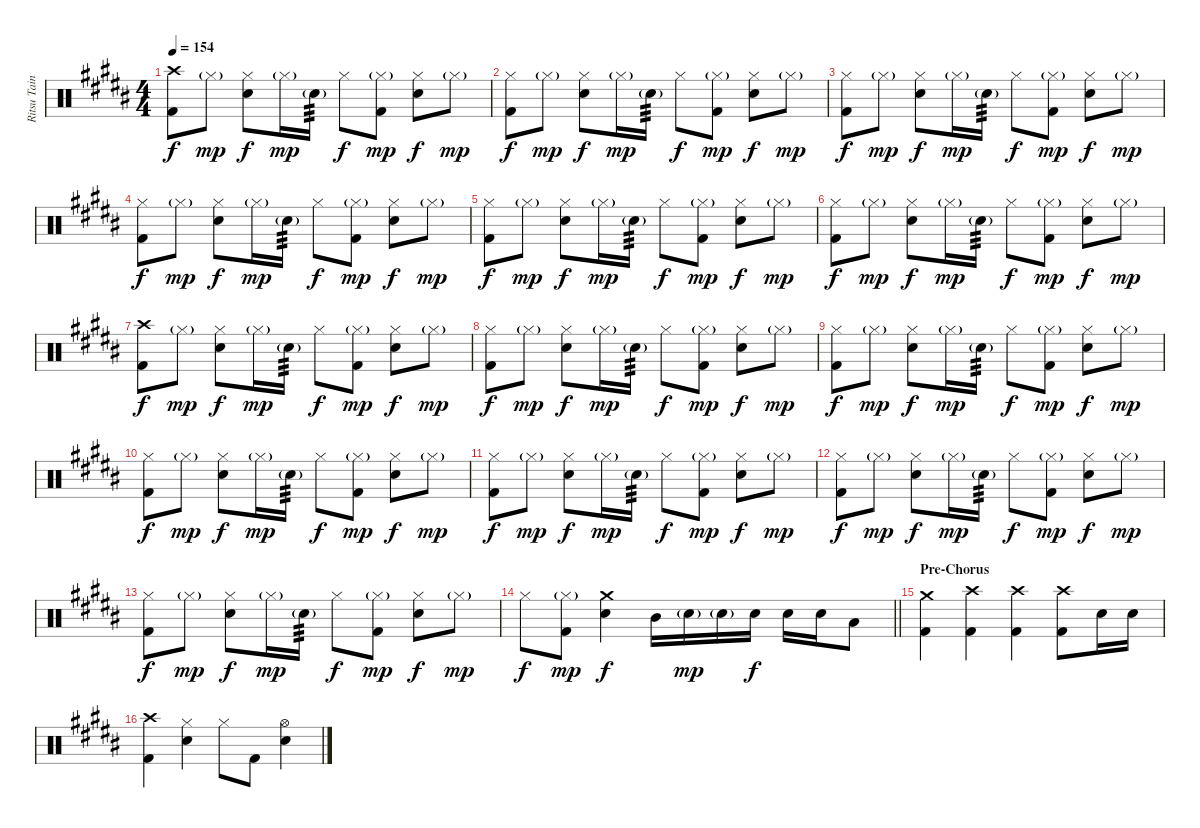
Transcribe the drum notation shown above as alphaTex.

\track ("Ritsu Tainaka" "Ritsu Tain") {instrument percussion}
\staff {score}
\articulation defaults
\ts (4 4)
\tempo 154
\clef neutral
\ks b
("Crash high (hit)" "Kick (hit) 2").8{dy f} "Hi-Hat (closed)"{g}.8{dy mp} ("Hi-Hat (closed)" "Snare (hit) 2").8{dy f} "Hi-Hat (closed)"{g}.16{dy mp} "Snare (hit) 2"{g}.16{tp 3} "Hi-Hat (closed)".8{dy f} ("Hi-Hat (closed)"{g} "Kick (hit) 2").8{dy mp} ("Hi-Hat (closed)" "Snare (hit) 2").8{dy f} "Hi-Hat (closed)"{g}.8{dy mp} |
("Hi-Hat (closed)" "Kick (hit) 2").8{dy f} "Hi-Hat (closed)"{g}.8{dy mp} ("Hi-Hat (closed)" "Snare (hit) 2").8{dy f} "Hi-Hat (closed)"{g}.16{dy mp} "Snare (hit) 2"{g}.16{tp 3} "Hi-Hat (closed)".8{dy f} ("Hi-Hat (closed)"{g} "Kick (hit) 2").8{dy mp} ("Hi-Hat (closed)" "Snare (hit) 2").8{dy f} "Hi-Hat (closed)"{g}.8{dy mp} |
("Hi-Hat (closed)" "Kick (hit) 2").8{dy f} "Hi-Hat (closed)"{g}.8{dy mp} ("Hi-Hat (closed)" "Snare (hit) 2").8{dy f} "Hi-Hat (closed)"{g}.16{dy mp} "Snare (hit) 2"{g}.16{tp 3} "Hi-Hat (closed)".8{dy f} ("Hi-Hat (closed)"{g} "Kick (hit) 2").8{dy mp} ("Hi-Hat (closed)" "Snare (hit) 2").8{dy f} "Hi-Hat (closed)"{g}.8{dy mp} |
("Hi-Hat (closed)" "Kick (hit) 2").8{dy f} "Hi-Hat (closed)"{g}.8{dy mp} ("Hi-Hat (closed)" "Snare (hit) 2").8{dy f} "Hi-Hat (closed)"{g}.16{dy mp} "Snare (hit) 2"{g}.16{tp 3} "Hi-Hat (closed)".8{dy f} ("Hi-Hat (closed)"{g} "Kick (hit) 2").8{dy mp} ("Hi-Hat (closed)" "Snare (hit) 2").8{dy f} "Hi-Hat (closed)"{g}.8{dy mp} |
("Hi-Hat (closed)" "Kick (hit) 2").8{dy f} "Hi-Hat (closed)"{g}.8{dy mp} ("Hi-Hat (closed)" "Snare (hit) 2").8{dy f} "Hi-Hat (closed)"{g}.16{dy mp} "Snare (hit) 2"{g}.16{tp 3} "Hi-Hat (closed)".8{dy f} ("Hi-Hat (closed)"{g} "Kick (hit) 2").8{dy mp} ("Hi-Hat (closed)" "Snare (hit) 2").8{dy f} "Hi-Hat (closed)"{g}.8{dy mp} |
("Hi-Hat (closed)" "Kick (hit) 2").8{dy f} "Hi-Hat (closed)"{g}.8{dy mp} ("Hi-Hat (closed)" "Snare (hit) 2").8{dy f} "Hi-Hat (closed)"{g}.16{dy mp} "Snare (hit) 2"{g}.16{tp 3} "Hi-Hat (closed)".8{dy f} ("Hi-Hat (closed)"{g} "Kick (hit) 2").8{dy mp} ("Hi-Hat (closed)" "Snare (hit) 2").8{dy f} "Hi-Hat (closed)"{g}.8{dy mp} |
("Crash high (hit)" "Kick (hit) 2").8{dy f} "Hi-Hat (closed)"{g}.8{dy mp} ("Hi-Hat (closed)" "Snare (hit) 2").8{dy f} "Hi-Hat (closed)"{g}.16{dy mp} "Snare (hit) 2"{g}.16{tp 3} "Hi-Hat (closed)".8{dy f} ("Hi-Hat (closed)"{g} "Kick (hit) 2").8{dy mp} ("Hi-Hat (closed)" "Snare (hit) 2").8{dy f} "Hi-Hat (closed)"{g}.8{dy mp} |
("Hi-Hat (closed)" "Kick (hit) 2").8{dy f} "Hi-Hat (closed)"{g}.8{dy mp} ("Hi-Hat (closed)" "Snare (hit) 2").8{dy f} "Hi-Hat (closed)"{g}.16{dy mp} "Snare (hit) 2"{g}.16{tp 3} "Hi-Hat (closed)".8{dy f} ("Hi-Hat (closed)"{g} "Kick (hit) 2").8{dy mp} ("Hi-Hat (closed)" "Snare (hit) 2").8{dy f} "Hi-Hat (closed)"{g}.8{dy mp} |
("Hi-Hat (closed)" "Kick (hit) 2").8{dy f} "Hi-Hat (closed)"{g}.8{dy mp} ("Hi-Hat (closed)" "Snare (hit) 2").8{dy f} "Hi-Hat (closed)"{g}.16{dy mp} "Snare (hit) 2"{g}.16{tp 3} "Hi-Hat (closed)".8{dy f} ("Hi-Hat (closed)"{g} "Kick (hit) 2").8{dy mp} ("Hi-Hat (closed)" "Snare (hit) 2").8{dy f} "Hi-Hat (closed)"{g}.8{dy mp} |
("Hi-Hat (closed)" "Kick (hit) 2").8{dy f} "Hi-Hat (closed)"{g}.8{dy mp} ("Hi-Hat (closed)" "Snare (hit) 2").8{dy f} "Hi-Hat (closed)"{g}.16{dy mp} "Snare (hit) 2"{g}.16{tp 3} "Hi-Hat (closed)".8{dy f} ("Hi-Hat (closed)"{g} "Kick (hit) 2").8{dy mp} ("Hi-Hat (closed)" "Snare (hit) 2").8{dy f} "Hi-Hat (closed)"{g}.8{dy mp} |
("Hi-Hat (closed)" "Kick (hit) 2").8{dy f} "Hi-Hat (closed)"{g}.8{dy mp} ("Hi-Hat (closed)" "Snare (hit) 2").8{dy f} "Hi-Hat (closed)"{g}.16{dy mp} "Snare (hit) 2"{g}.16{tp 3} "Hi-Hat (closed)".8{dy f} ("Hi-Hat (closed)"{g} "Kick (hit) 2").8{dy mp} ("Hi-Hat (closed)" "Snare (hit) 2").8{dy f} "Hi-Hat (closed)"{g}.8{dy mp} |
("Hi-Hat (closed)" "Kick (hit) 2").8{dy f} "Hi-Hat (closed)"{g}.8{dy mp} ("Hi-Hat (closed)" "Snare (hit) 2").8{dy f} "Hi-Hat (closed)"{g}.16{dy mp} "Snare (hit) 2"{g}.16{tp 3} "Hi-Hat (closed)".8{dy f} ("Hi-Hat (closed)"{g} "Kick (hit) 2").8{dy mp} ("Hi-Hat (closed)" "Snare (hit) 2").8{dy f} "Hi-Hat (closed)"{g}.8{dy mp} |
("Hi-Hat (closed)" "Kick (hit) 2").8{dy f} "Hi-Hat (closed)"{g}.8{dy mp} ("Hi-Hat (closed)" "Snare (hit) 2").8{dy f} "Hi-Hat (closed)"{g}.16{dy mp} "Snare (hit) 2"{g}.16{tp 3} "Hi-Hat (closed)".8{dy f} ("Hi-Hat (closed)"{g} "Kick (hit) 2").8{dy mp} ("Hi-Hat (closed)" "Snare (hit) 2").8{dy f} "Hi-Hat (closed)"{g}.8{dy mp} |
\barLineRight lightlight "Hi-Hat (closed)".8{dy f}
("Hi-Hat (closed)"{g} "Kick (hit) 2").8{dy mp} ("Crash medium (hit)" "Snare (hit) 2").4{dy f} "Mid Tom (hit)".16 "Snare (hit) 2"{g}.16{dy mp} "Snare (hit) 2"{g}.16 "Snare (hit) 2".16{dy f} "Snare (hit) 2".16 "Snare (hit) 2".16 "Low Tom (hit)".8 |
\section ("" "Pre-Chorus")
("Crash medium (hit)" "Kick (hit) 2").4 ("Crash high (hit)" "Kick (hit) 2").4 ("Crash high (hit)" "Kick (hit) 2").4 ("Crash high (hit)" "Kick (hit) 2").8 "Snare (hit) 2".16 "Snare (hit) 2".16 |
("Crash high (hit)" "Kick (hit) 2").4 ("Hi-Hat (closed)" "Snare (hit) 2").4 "Hi-Hat (closed)".8 "Kick (hit) 2".8 ("Hi-Hat (open)" "Snare (hit) 2").4
